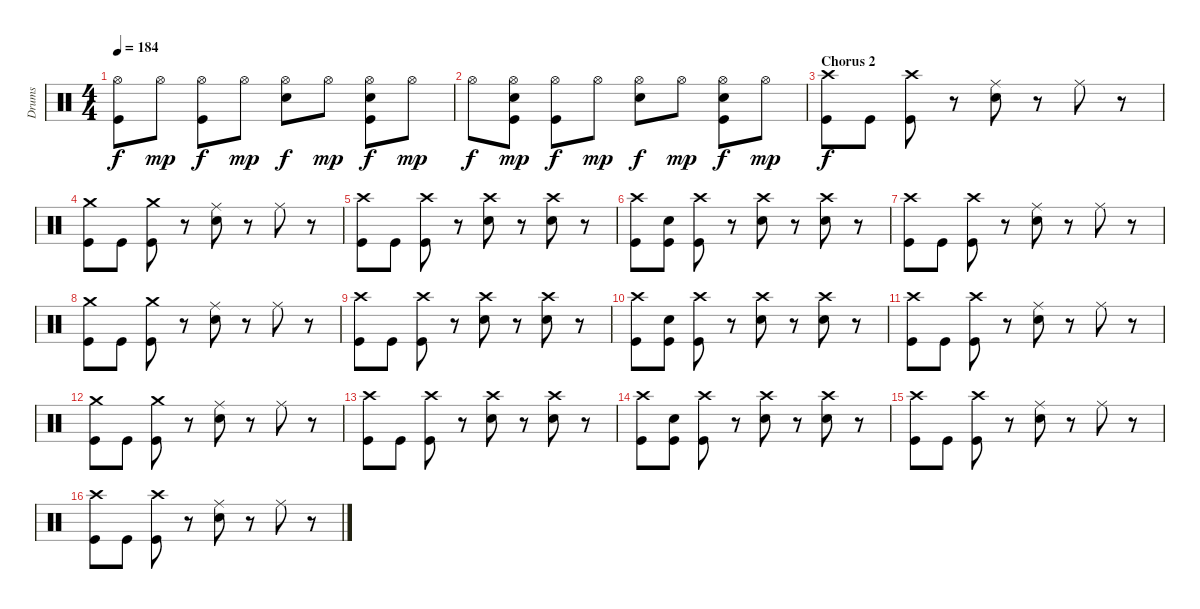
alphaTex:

\track ("Drums" "Drums") {instrument percussion}
\staff {score}
\articulation defaults
\ts (4 4)
\tempo 184
\clef neutral
\ks c
("Hi-Hat (open)" "Kick (hit)").8{dy f} "Hi-Hat (open)".8{dy mp} ("Hi-Hat (open)" "Kick (hit)").8{dy f} "Hi-Hat (open)".8{dy mp} ("Hi-Hat (open)" "Snare (hit) 2").8{dy f} "Hi-Hat (open)".8{dy mp} ("Hi-Hat (open)" "Snare (hit) 2" "Kick (hit)").8{dy f} "Hi-Hat (open)".8{dy mp} |
"Hi-Hat (open)".8{dy f} ("Hi-Hat (open)" "Snare (hit) 2" "Kick (hit)").8{dy mp} ("Hi-Hat (open)" "Kick (hit)").8{dy f} "Hi-Hat (open)".8{dy mp} ("Hi-Hat (open)" "Snare (hit) 2").8{dy f} "Hi-Hat (open)".8{dy mp} ("Hi-Hat (open)" "Snare (hit) 2" "Kick (hit)").8{dy f} "Hi-Hat (open)".8{dy mp} |
\section ("" "Chorus 2")
("Crash high (hit)" "Kick (hit)").8{dy f} "Kick (hit)".8 ("Crash high (hit)" "Kick (hit)").8 r.8 ("Ride (middle)" "Snare (hit) 2").8 r.8 "Ride (middle)".8 r.8 |
("Crash medium (hit)" "Kick (hit)").8 "Kick (hit)".8 ("Crash medium (hit)" "Kick (hit)").8 r.8 ("Ride (middle)" "Snare (hit) 2").8 r.8 "Ride (middle)".8 r.8 |
("Crash high (hit)" "Kick (hit)").8 "Kick (hit)".8 ("Crash high (hit)" "Kick (hit)").8 r.8 ("Crash high (hit)" "Snare (hit) 2").8 r.8 ("Crash high (hit)" "Snare (hit) 2").8 r.8 |
("Crash high (hit)" "Kick (hit)").8 ("Snare (hit) 2" "Kick (hit)").8 ("Crash high (hit)" "Kick (hit)").8 r.8 ("Crash high (hit)" "Snare (hit) 2").8 r.8 ("Crash high (hit)" "Snare (hit) 2").8 r.8 |
("Crash high (hit)" "Kick (hit)").8 "Kick (hit)".8 ("Crash high (hit)" "Kick (hit)").8 r.8 ("Ride (middle)" "Snare (hit) 2").8 r.8 "Ride (middle)".8 r.8 |
("Crash medium (hit)" "Kick (hit)").8 "Kick (hit)".8 ("Crash medium (hit)" "Kick (hit)").8 r.8 ("Ride (middle)" "Snare (hit) 2").8 r.8 "Ride (middle)".8 r.8 |
("Crash high (hit)" "Kick (hit)").8 "Kick (hit)".8 ("Crash high (hit)" "Kick (hit)").8 r.8 ("Crash high (hit)" "Snare (hit) 2").8 r.8 ("Crash high (hit)" "Snare (hit) 2").8 r.8 |
("Crash high (hit)" "Kick (hit)").8 ("Snare (hit) 2" "Kick (hit)").8 ("Crash high (hit)" "Kick (hit)").8 r.8 ("Crash high (hit)" "Snare (hit) 2").8 r.8 ("Crash high (hit)" "Snare (hit) 2").8 r.8 |
("Crash high (hit)" "Kick (hit)").8 "Kick (hit)".8 ("Crash high (hit)" "Kick (hit)").8 r.8 ("Ride (middle)" "Snare (hit) 2").8 r.8 "Ride (middle)".8 r.8 |
("Crash medium (hit)" "Kick (hit)").8 "Kick (hit)".8 ("Crash medium (hit)" "Kick (hit)").8 r.8 ("Ride (middle)" "Snare (hit) 2").8 r.8 "Ride (middle)".8 r.8 |
("Crash high (hit)" "Kick (hit)").8 "Kick (hit)".8 ("Crash high (hit)" "Kick (hit)").8 r.8 ("Crash high (hit)" "Snare (hit) 2").8 r.8 ("Crash high (hit)" "Snare (hit) 2").8 r.8 |
("Crash high (hit)" "Kick (hit)").8 ("Snare (hit) 2" "Kick (hit)").8 ("Crash high (hit)" "Kick (hit)").8 r.8 ("Crash high (hit)" "Snare (hit) 2").8 r.8 ("Crash high (hit)" "Snare (hit) 2").8 r.8 |
("Crash high (hit)" "Kick (hit)").8 "Kick (hit)".8 ("Crash high (hit)" "Kick (hit)").8 r.8 ("Ride (middle)" "Snare (hit) 2").8 r.8 "Ride (middle)".8 r.8 |
("Crash high (hit)" "Kick (hit)").8 "Kick (hit)".8 ("Crash high (hit)" "Kick (hit)").8 r.8 ("Ride (middle)" "Snare (hit) 2").8 r.8 "Ride (middle)".8 r.8
